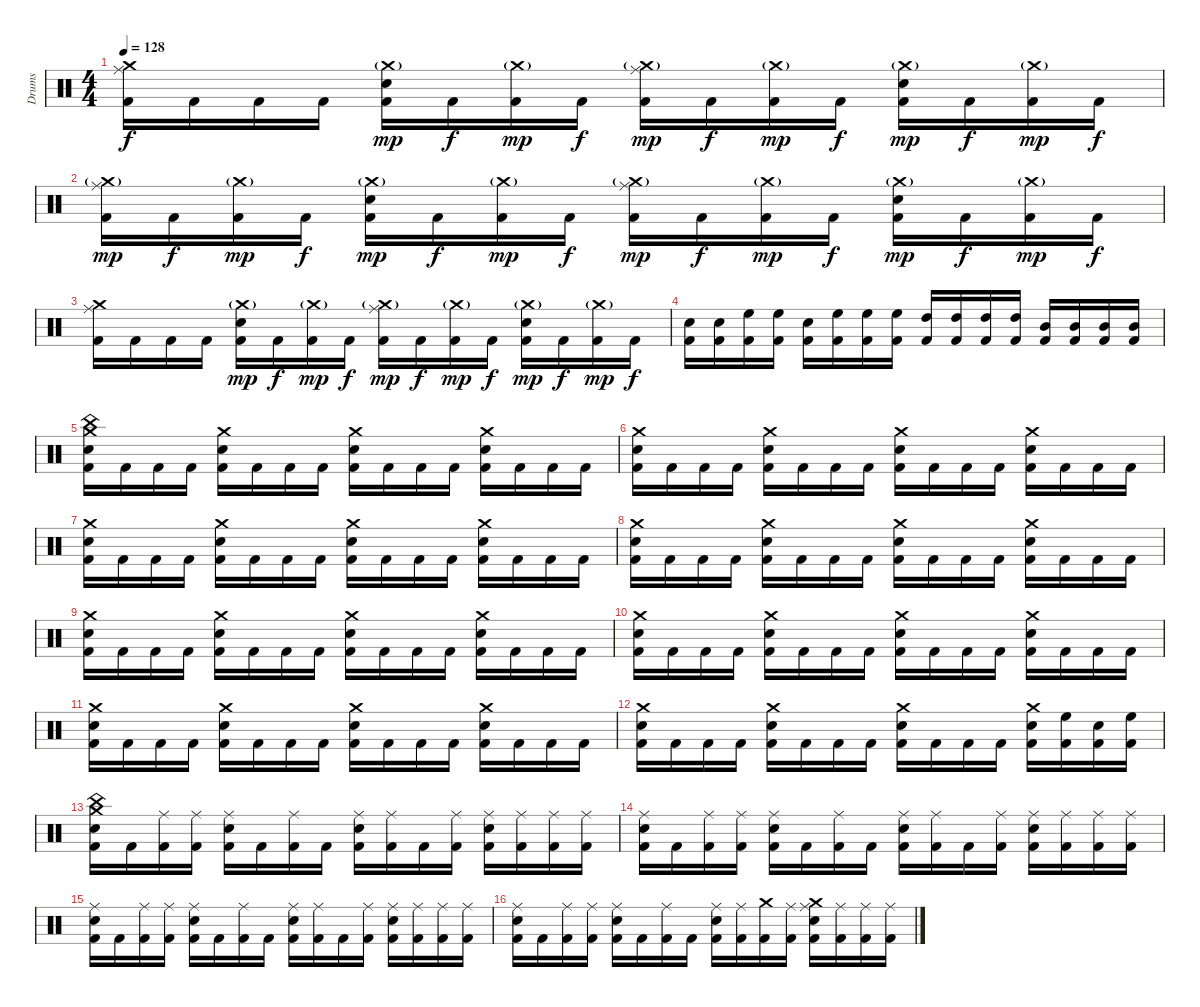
\track ("Drums" "Drums") {instrument percussion}
\staff {score}
\articulation defaults
\ts (4 4)
\tempo 128
\clef neutral
\ks c
("Crash medium (hit)" "Ride (middle)" "Kick (hit) 2").16{dy f} "Kick (hit) 2".16 "Kick (hit) 2".16 "Kick (hit) 2".16 ("Crash medium (hit)"{g} "Snare (hit) 2" "Kick (hit) 2").16{dy mp} "Kick (hit) 2".16{dy f} ("Crash medium (hit)"{g} "Kick (hit) 2").16{dy mp} "Kick (hit) 2".16{dy f} ("Crash medium (hit)"{g} "Ride (middle)" "Kick (hit) 2").16{dy mp} "Kick (hit) 2".16{dy f} ("Crash medium (hit)"{g} "Kick (hit) 2").16{dy mp} "Kick (hit) 2".16{dy f} ("Crash medium (hit)"{g} "Snare (hit) 2" "Kick (hit) 2").16{dy mp} "Kick (hit) 2".16{dy f} ("Crash medium (hit)"{g} "Kick (hit) 2").16{dy mp} "Kick (hit) 2".16{dy f} |
("Crash medium (hit)"{g} "Ride (middle)" "Kick (hit) 2").16{dy mp} "Kick (hit) 2".16{dy f} ("Crash medium (hit)"{g} "Kick (hit) 2").16{dy mp} "Kick (hit) 2".16{dy f} ("Crash medium (hit)"{g} "Snare (hit) 2" "Kick (hit) 2").16{dy mp} "Kick (hit) 2".16{dy f} ("Crash medium (hit)"{g} "Kick (hit) 2").16{dy mp} "Kick (hit) 2".16{dy f} ("Crash medium (hit)"{g} "Ride (middle)" "Kick (hit) 2").16{dy mp} "Kick (hit) 2".16{dy f} ("Crash medium (hit)"{g} "Kick (hit) 2").16{dy mp} "Kick (hit) 2".16{dy f} ("Crash medium (hit)"{g} "Snare (hit) 2" "Kick (hit) 2").16{dy mp} "Kick (hit) 2".16{dy f} ("Crash medium (hit)"{g} "Kick (hit) 2").16{dy mp} "Kick (hit) 2".16{dy f} |
("Crash medium (hit)" "Ride (middle)" "Kick (hit) 2").16 "Kick (hit) 2".16 "Kick (hit) 2".16 "Kick (hit) 2".16 ("Crash medium (hit)"{g} "Snare (hit) 2" "Kick (hit) 2").16{dy mp} "Kick (hit) 2".16{dy f} ("Crash medium (hit)"{g} "Kick (hit) 2").16{dy mp} "Kick (hit) 2".16{dy f} ("Crash medium (hit)"{g} "Ride (middle)" "Kick (hit) 2").16{dy mp} "Kick (hit) 2".16{dy f} ("Crash medium (hit)"{g} "Kick (hit) 2").16{dy mp} "Kick (hit) 2".16{dy f} ("Crash medium (hit)"{g} "Snare (hit) 2" "Kick (hit) 2").16{dy mp} "Kick (hit) 2".16{dy f} ("Crash medium (hit)"{g} "Kick (hit) 2").16{dy mp} "Kick (hit) 2".16{dy f} |
("Snare (hit) 2" "Kick (hit) 2").16 ("Snare (hit) 2" "Kick (hit) 2").16 ("High Floor Tom (hit)" "Kick (hit) 2").16 ("High Floor Tom (hit)" "Kick (hit) 2").16 ("Snare (hit) 2" "Kick (hit) 2").16 ("High Floor Tom (hit)" "Kick (hit) 2").16 ("High Floor Tom (hit)" "Kick (hit) 2").16 ("High Floor Tom (hit)" "Kick (hit) 2").16 ("High Tom (hit)" "Kick (hit) 2").16 ("High Tom (hit)" "Kick (hit) 2").16 ("High Tom (hit)" "Kick (hit) 2").16 ("High Tom (hit)" "Kick (hit) 2").16 ("Mid Tom (hit)" "Kick (hit) 2").16 ("Mid Tom (hit)" "Kick (hit) 2").16 ("Mid Tom (hit)" "Kick (hit) 2").16 ("Mid Tom (hit)" "Kick (hit) 2").16 |
("China (hit)" "Crash medium (hit)" "Snare (hit) 2" "Kick (hit) 2").16 "Kick (hit) 2".16 "Kick (hit) 2".16 "Kick (hit) 2".16 ("Crash medium (hit)" "Snare (hit) 2" "Kick (hit) 2").16 "Kick (hit) 2".16 "Kick (hit) 2".16 "Kick (hit) 2".16 ("Crash medium (hit)" "Snare (hit) 2" "Kick (hit) 2").16 "Kick (hit) 2".16 "Kick (hit) 2".16 "Kick (hit) 2".16 ("Crash medium (hit)" "Snare (hit) 2" "Kick (hit) 2").16 "Kick (hit) 2".16 "Kick (hit) 2".16 "Kick (hit) 2".16 |
("Crash medium (hit)" "Snare (hit) 2" "Kick (hit) 2").16 "Kick (hit) 2".16 "Kick (hit) 2".16 "Kick (hit) 2".16 ("Crash medium (hit)" "Snare (hit) 2" "Kick (hit) 2").16 "Kick (hit) 2".16 "Kick (hit) 2".16 "Kick (hit) 2".16 ("Crash medium (hit)" "Snare (hit) 2" "Kick (hit) 2").16 "Kick (hit) 2".16 "Kick (hit) 2".16 "Kick (hit) 2".16 ("Crash medium (hit)" "Snare (hit) 2" "Kick (hit) 2").16 "Kick (hit) 2".16 "Kick (hit) 2".16 "Kick (hit) 2".16 |
("Crash medium (hit)" "Snare (hit) 2" "Kick (hit) 2").16 "Kick (hit) 2".16 "Kick (hit) 2".16 "Kick (hit) 2".16 ("Crash medium (hit)" "Snare (hit) 2" "Kick (hit) 2").16 "Kick (hit) 2".16 "Kick (hit) 2".16 "Kick (hit) 2".16 ("Crash medium (hit)" "Snare (hit) 2" "Kick (hit) 2").16 "Kick (hit) 2".16 "Kick (hit) 2".16 "Kick (hit) 2".16 ("Crash medium (hit)" "Snare (hit) 2" "Kick (hit) 2").16 "Kick (hit) 2".16 "Kick (hit) 2".16 "Kick (hit) 2".16 |
("Crash medium (hit)" "Snare (hit) 2" "Kick (hit) 2").16 "Kick (hit) 2".16 "Kick (hit) 2".16 "Kick (hit) 2".16 ("Crash medium (hit)" "Snare (hit) 2" "Kick (hit) 2").16 "Kick (hit) 2".16 "Kick (hit) 2".16 "Kick (hit) 2".16 ("Crash medium (hit)" "Snare (hit) 2" "Kick (hit) 2").16 "Kick (hit) 2".16 "Kick (hit) 2".16 "Kick (hit) 2".16 ("Crash medium (hit)" "Snare (hit) 2" "Kick (hit) 2").16 "Kick (hit) 2".16 "Kick (hit) 2".16 "Kick (hit) 2".16 |
("Crash medium (hit)" "Snare (hit) 2" "Kick (hit) 2").16 "Kick (hit) 2".16 "Kick (hit) 2".16 "Kick (hit) 2".16 ("Crash medium (hit)" "Snare (hit) 2" "Kick (hit) 2").16 "Kick (hit) 2".16 "Kick (hit) 2".16 "Kick (hit) 2".16 ("Crash medium (hit)" "Snare (hit) 2" "Kick (hit) 2").16 "Kick (hit) 2".16 "Kick (hit) 2".16 "Kick (hit) 2".16 ("Crash medium (hit)" "Snare (hit) 2" "Kick (hit) 2").16 "Kick (hit) 2".16 "Kick (hit) 2".16 "Kick (hit) 2".16 |
("Crash medium (hit)" "Snare (hit) 2" "Kick (hit) 2").16 "Kick (hit) 2".16 "Kick (hit) 2".16 "Kick (hit) 2".16 ("Crash medium (hit)" "Snare (hit) 2" "Kick (hit) 2").16 "Kick (hit) 2".16 "Kick (hit) 2".16 "Kick (hit) 2".16 ("Crash medium (hit)" "Snare (hit) 2" "Kick (hit) 2").16 "Kick (hit) 2".16 "Kick (hit) 2".16 "Kick (hit) 2".16 ("Crash medium (hit)" "Snare (hit) 2" "Kick (hit) 2").16 "Kick (hit) 2".16 "Kick (hit) 2".16 "Kick (hit) 2".16 |
("Crash medium (hit)" "Snare (hit) 2" "Kick (hit) 2").16 "Kick (hit) 2".16 "Kick (hit) 2".16 "Kick (hit) 2".16 ("Crash medium (hit)" "Snare (hit) 2" "Kick (hit) 2").16 "Kick (hit) 2".16 "Kick (hit) 2".16 "Kick (hit) 2".16 ("Crash medium (hit)" "Snare (hit) 2" "Kick (hit) 2").16 "Kick (hit) 2".16 "Kick (hit) 2".16 "Kick (hit) 2".16 ("Crash medium (hit)" "Snare (hit) 2" "Kick (hit) 2").16 "Kick (hit) 2".16 "Kick (hit) 2".16 "Kick (hit) 2".16 |
("Crash medium (hit)" "Snare (hit) 2" "Kick (hit) 2").16 "Kick (hit) 2".16 "Kick (hit) 2".16 "Kick (hit) 2".16 ("Crash medium (hit)" "Snare (hit) 2" "Kick (hit) 2").16 "Kick (hit) 2".16 "Kick (hit) 2".16 "Kick (hit) 2".16 ("Crash medium (hit)" "Snare (hit) 2" "Kick (hit) 2").16 "Kick (hit) 2".16 "Kick (hit) 2".16 "Kick (hit) 2".16 ("Crash medium (hit)" "Snare (hit) 2" "Kick (hit) 2").16 ("High Floor Tom (hit)" "Kick (hit) 2").16 ("Snare (hit) 2" "Kick (hit) 2").16 ("High Floor Tom (hit)" "Kick (hit) 2").16 |
("China (hit)" "Crash medium (hit)" "Snare (hit) 2" "Kick (hit) 2").16 "Kick (hit) 2".16 ("Ride (middle)" "Kick (hit) 2").16 ("Ride (middle)" "Kick (hit) 2").16 ("Ride (middle)" "Snare (hit) 2" "Kick (hit) 2").16 "Kick (hit) 2".16 ("Ride (middle)" "Kick (hit) 2").16 "Kick (hit) 2".16 ("Ride (middle)" "Snare (hit) 2" "Kick (hit) 2").16 ("Ride (middle)" "Kick (hit) 2").16 "Kick (hit) 2".16 ("Ride (middle)" "Kick (hit) 2").16 ("Ride (middle)" "Snare (hit) 2" "Kick (hit) 2").16 ("Ride (middle)" "Kick (hit) 2").16 ("Ride (middle)" "Kick (hit) 2").16 ("Ride (middle)" "Kick (hit) 2").16 |
("Ride (middle)" "Snare (hit) 2" "Kick (hit) 2").16 "Kick (hit) 2".16 ("Ride (middle)" "Kick (hit) 2").16 ("Ride (middle)" "Kick (hit) 2").16 ("Ride (middle)" "Snare (hit) 2" "Kick (hit) 2").16 "Kick (hit) 2".16 ("Ride (middle)" "Kick (hit) 2").16 "Kick (hit) 2".16 ("Ride (middle)" "Snare (hit) 2" "Kick (hit) 2").16 ("Ride (middle)" "Kick (hit) 2").16 "Kick (hit) 2".16 ("Ride (middle)" "Kick (hit) 2").16 ("Ride (middle)" "Snare (hit) 2" "Kick (hit) 2").16 ("Ride (middle)" "Kick (hit) 2").16 ("Ride (middle)" "Kick (hit) 2").16 ("Ride (middle)" "Kick (hit) 2").16 |
("Ride (middle)" "Snare (hit) 2" "Kick (hit) 2").16 "Kick (hit) 2".16 ("Ride (middle)" "Kick (hit) 2").16 ("Ride (middle)" "Kick (hit) 2").16 ("Ride (middle)" "Snare (hit) 2" "Kick (hit) 2").16 "Kick (hit) 2".16 ("Ride (middle)" "Kick (hit) 2").16 "Kick (hit) 2".16 ("Ride (middle)" "Snare (hit) 2" "Kick (hit) 2").16 ("Ride (middle)" "Kick (hit) 2").16 "Kick (hit) 2".16 ("Ride (middle)" "Kick (hit) 2").16 ("Ride (middle)" "Snare (hit) 2" "Kick (hit) 2").16 ("Ride (middle)" "Kick (hit) 2").16 ("Ride (middle)" "Kick (hit) 2").16 ("Ride (middle)" "Kick (hit) 2").16 |
("Ride (middle)" "Snare (hit) 2" "Kick (hit) 2").16 "Kick (hit) 2".16 ("Ride (middle)" "Kick (hit) 2").16 ("Ride (middle)" "Kick (hit) 2").16 ("Ride (middle)" "Snare (hit) 2" "Kick (hit) 2").16 "Kick (hit) 2".16 ("Ride (middle)" "Kick (hit) 2").16 "Kick (hit) 2".16 ("Ride (middle)" "Snare (hit) 2" "Kick (hit) 2").16 ("Ride (middle)" "Kick (hit) 2").16 ("Crash medium (hit)" "Kick (hit) 2").16 ("Ride (middle)" "Kick (hit) 2").16 ("Crash medium (hit)" "Ride (middle)" "Snare (hit) 2" "Kick (hit) 2").16 ("Ride (middle)" "Kick (hit) 2").16 ("Ride (middle)" "Kick (hit) 2").16 ("Ride (middle)" "Kick (hit) 2").16
